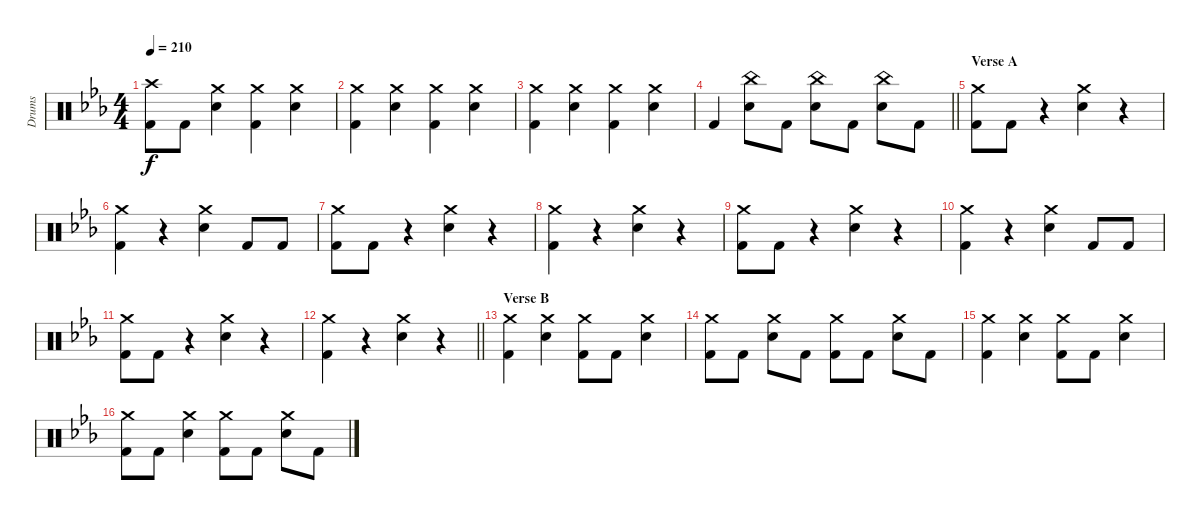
\track ("Drums" "Drums") {instrument percussion}
\staff {score}
\articulation defaults
\ts (4 4)
\tempo 210
\clef neutral
\ks cminor
("Crash high (hit)" "Kick (hit) 2").8{dy f} "Kick (hit) 2".8 ("Crash medium (hit)" "Electric Snare (hit)").4 ("Crash medium (hit)" "Kick (hit) 2").4 ("Crash medium (hit)" "Electric Snare (hit)").4 |
("Crash medium (hit)" "Kick (hit) 2").4 ("Crash medium (hit)" "Electric Snare (hit)").4 ("Crash medium (hit)" "Kick (hit) 2").4 ("Crash medium (hit)" "Electric Snare (hit)").4 |
("Crash medium (hit)" "Kick (hit) 2").4 ("Crash medium (hit)" "Electric Snare (hit)").4 ("Crash medium (hit)" "Kick (hit) 2").4 ("Crash medium (hit)" "Electric Snare (hit)").4 |
\barLineRight lightlight "Kick (hit) 2".4
("China (hit)" "Electric Snare (hit)").8 "Kick (hit) 2".8 ("China (hit)" "Electric Snare (hit)").8 "Kick (hit) 2".8 ("China (hit)" "Electric Snare (hit)").8 "Kick (hit) 2".8 |
\section ("" "Verse A")
("Crash medium (hit)" "Kick (hit) 2").8 "Kick (hit) 2".8 r.4 ("Crash medium (hit)" "Electric Snare (hit)").4 r.4 |
("Crash medium (hit)" "Kick (hit) 2").4 r.4 ("Crash medium (hit)" "Electric Snare (hit)").4 "Kick (hit) 2".8 "Kick (hit) 2".8 |
("Crash medium (hit)" "Kick (hit) 2").8 "Kick (hit) 2".8 r.4 ("Crash medium (hit)" "Electric Snare (hit)").4 r.4 |
("Crash medium (hit)" "Kick (hit) 2").4 r.4 ("Crash medium (hit)" "Electric Snare (hit)").4 r.4 |
("Crash medium (hit)" "Kick (hit) 2").8 "Kick (hit) 2".8 r.4 ("Crash medium (hit)" "Electric Snare (hit)").4 r.4 |
("Crash medium (hit)" "Kick (hit) 2").4 r.4 ("Crash medium (hit)" "Electric Snare (hit)").4 "Kick (hit) 2".8 "Kick (hit) 2".8 |
("Crash medium (hit)" "Kick (hit) 2").8 "Kick (hit) 2".8 r.4 ("Crash medium (hit)" "Electric Snare (hit)").4 r.4 |
\barLineRight lightlight
("Crash medium (hit)" "Kick (hit) 2").4 r.4 ("Crash medium (hit)" "Electric Snare (hit)").4 r.4 |
\section ("" "Verse B")
("Crash medium (hit)" "Kick (hit) 2").4 ("Crash medium (hit)" "Electric Snare (hit)").4 ("Crash medium (hit)" "Kick (hit) 2").8 "Kick (hit) 2".8 ("Crash medium (hit)" "Electric Snare (hit)").4 |
("Crash medium (hit)" "Kick (hit) 2").8 "Kick (hit) 2".8 ("Crash medium (hit)" "Electric Snare (hit)").8 "Kick (hit) 2".8 ("Crash medium (hit)" "Kick (hit) 2").8 "Kick (hit) 2".8 ("Crash medium (hit)" "Electric Snare (hit)").8 "Kick (hit) 2".8 |
("Crash medium (hit)" "Kick (hit) 2").4 ("Crash medium (hit)" "Electric Snare (hit)").4 ("Crash medium (hit)" "Kick (hit) 2").8 "Kick (hit) 2".8 ("Crash medium (hit)" "Electric Snare (hit)").4 |
("Crash medium (hit)" "Kick (hit) 2").8 "Kick (hit) 2".8 ("Crash medium (hit)" "Electric Snare (hit)").4 ("Crash medium (hit)" "Kick (hit) 2").8 "Kick (hit) 2".8 ("Crash medium (hit)" "Electric Snare (hit)").8 "Kick (hit) 2".8
